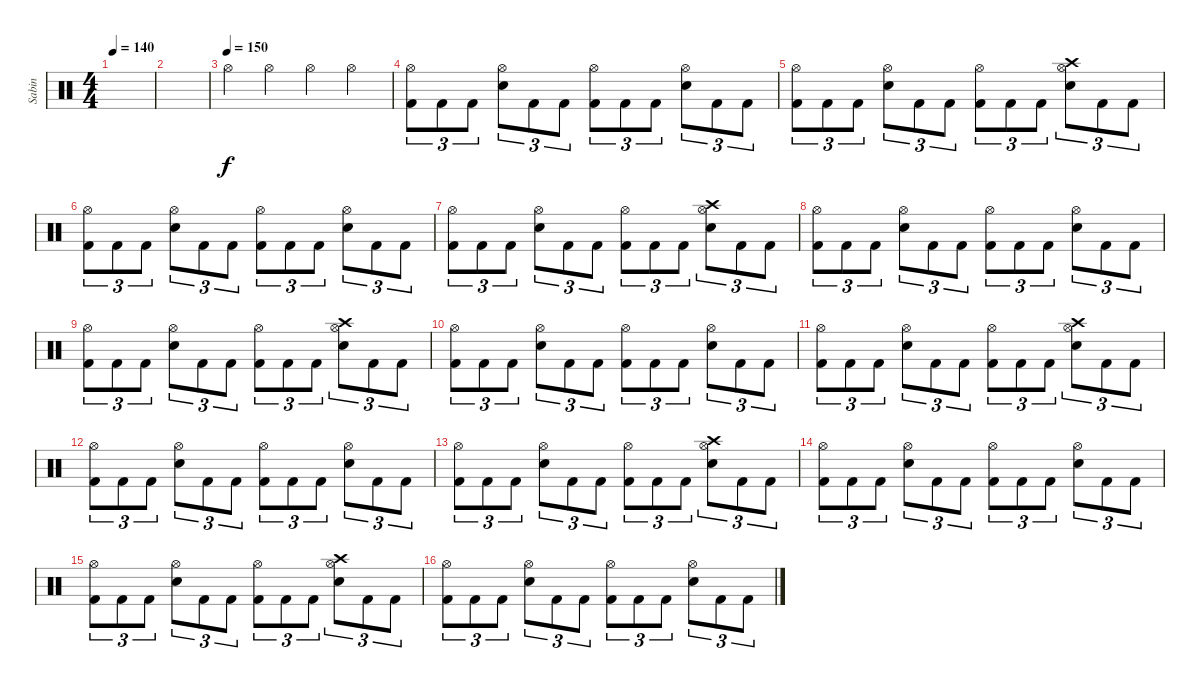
\track ("Sabin" "Sabin") {instrument percussion}
\staff {score}
\articulation defaults
\ts (4 4)
\tempo 140
\clef neutral
\ks c
|
|
\tempo (150)
"Hi-Hat (open)".4 "Hi-Hat (open)".4 "Hi-Hat (open)".4 "Hi-Hat (open)".4 |
("Hi-Hat (open)" "Kick (hit) 2").8{tu (3 2)} "Kick (hit) 2".8{tu (3 2)} "Kick (hit) 2".8{tu (3 2)} ("Snare (hit) 2" "Hi-Hat (open)").8{tu (3 2)} "Kick (hit) 2".8{tu (3 2)} "Kick (hit) 2".8{tu (3 2)} ("Hi-Hat (open)" "Kick (hit) 2").8{tu (3 2)} "Kick (hit) 2".8{tu (3 2)} "Kick (hit) 2".8{tu (3 2)} ("Snare (hit) 2" "Hi-Hat (open)").8{tu (3 2)} "Kick (hit) 2".8{tu (3 2)} "Kick (hit) 2".8{tu (3 2)} |
("Hi-Hat (open)" "Kick (hit) 2").8{tu (3 2)} "Kick (hit) 2".8{tu (3 2)} "Kick (hit) 2".8{tu (3 2)} ("Snare (hit) 2" "Hi-Hat (open)").8{tu (3 2)} "Kick (hit) 2".8{tu (3 2)} "Kick (hit) 2".8{tu (3 2)} ("Hi-Hat (open)" "Kick (hit) 2").8{tu (3 2)} "Kick (hit) 2".8{tu (3 2)} "Kick (hit) 2".8{tu (3 2)} ("Crash high (hit)" "Snare (hit) 2" "Hi-Hat (open)").8{tu (3 2)} "Kick (hit) 2".8{tu (3 2)} "Kick (hit) 2".8{tu (3 2)} |
("Hi-Hat (open)" "Kick (hit) 2").8{tu (3 2)} "Kick (hit) 2".8{tu (3 2)} "Kick (hit) 2".8{tu (3 2)} ("Snare (hit) 2" "Hi-Hat (open)").8{tu (3 2)} "Kick (hit) 2".8{tu (3 2)} "Kick (hit) 2".8{tu (3 2)} ("Hi-Hat (open)" "Kick (hit) 2").8{tu (3 2)} "Kick (hit) 2".8{tu (3 2)} "Kick (hit) 2".8{tu (3 2)} ("Snare (hit) 2" "Hi-Hat (open)").8{tu (3 2)} "Kick (hit) 2".8{tu (3 2)} "Kick (hit) 2".8{tu (3 2)} |
("Hi-Hat (open)" "Kick (hit) 2").8{tu (3 2)} "Kick (hit) 2".8{tu (3 2)} "Kick (hit) 2".8{tu (3 2)} ("Snare (hit) 2" "Hi-Hat (open)").8{tu (3 2)} "Kick (hit) 2".8{tu (3 2)} "Kick (hit) 2".8{tu (3 2)} ("Hi-Hat (open)" "Kick (hit) 2").8{tu (3 2)} "Kick (hit) 2".8{tu (3 2)} "Kick (hit) 2".8{tu (3 2)} ("Crash high (hit)" "Snare (hit) 2" "Hi-Hat (open)").8{tu (3 2)} "Kick (hit) 2".8{tu (3 2)} "Kick (hit) 2".8{tu (3 2)} |
("Hi-Hat (open)" "Kick (hit) 2").8{tu (3 2)} "Kick (hit) 2".8{tu (3 2)} "Kick (hit) 2".8{tu (3 2)} ("Snare (hit) 2" "Hi-Hat (open)").8{tu (3 2)} "Kick (hit) 2".8{tu (3 2)} "Kick (hit) 2".8{tu (3 2)} ("Hi-Hat (open)" "Kick (hit) 2").8{tu (3 2)} "Kick (hit) 2".8{tu (3 2)} "Kick (hit) 2".8{tu (3 2)} ("Snare (hit) 2" "Hi-Hat (open)").8{tu (3 2)} "Kick (hit) 2".8{tu (3 2)} "Kick (hit) 2".8{tu (3 2)} |
("Hi-Hat (open)" "Kick (hit) 2").8{tu (3 2)} "Kick (hit) 2".8{tu (3 2)} "Kick (hit) 2".8{tu (3 2)} ("Snare (hit) 2" "Hi-Hat (open)").8{tu (3 2)} "Kick (hit) 2".8{tu (3 2)} "Kick (hit) 2".8{tu (3 2)} ("Hi-Hat (open)" "Kick (hit) 2").8{tu (3 2)} "Kick (hit) 2".8{tu (3 2)} "Kick (hit) 2".8{tu (3 2)} ("Crash high (hit)" "Snare (hit) 2" "Hi-Hat (open)").8{tu (3 2)} "Kick (hit) 2".8{tu (3 2)} "Kick (hit) 2".8{tu (3 2)} |
("Hi-Hat (open)" "Kick (hit) 2").8{tu (3 2)} "Kick (hit) 2".8{tu (3 2)} "Kick (hit) 2".8{tu (3 2)} ("Snare (hit) 2" "Hi-Hat (open)").8{tu (3 2)} "Kick (hit) 2".8{tu (3 2)} "Kick (hit) 2".8{tu (3 2)} ("Hi-Hat (open)" "Kick (hit) 2").8{tu (3 2)} "Kick (hit) 2".8{tu (3 2)} "Kick (hit) 2".8{tu (3 2)} ("Snare (hit) 2" "Hi-Hat (open)").8{tu (3 2)} "Kick (hit) 2".8{tu (3 2)} "Kick (hit) 2".8{tu (3 2)} |
("Hi-Hat (open)" "Kick (hit) 2").8{tu (3 2)} "Kick (hit) 2".8{tu (3 2)} "Kick (hit) 2".8{tu (3 2)} ("Snare (hit) 2" "Hi-Hat (open)").8{tu (3 2)} "Kick (hit) 2".8{tu (3 2)} "Kick (hit) 2".8{tu (3 2)} ("Hi-Hat (open)" "Kick (hit) 2").8{tu (3 2)} "Kick (hit) 2".8{tu (3 2)} "Kick (hit) 2".8{tu (3 2)} ("Crash high (hit)" "Snare (hit) 2" "Hi-Hat (open)").8{tu (3 2)} "Kick (hit) 2".8{tu (3 2)} "Kick (hit) 2".8{tu (3 2)} |
("Hi-Hat (open)" "Kick (hit) 2").8{tu (3 2)} "Kick (hit) 2".8{tu (3 2)} "Kick (hit) 2".8{tu (3 2)} ("Snare (hit) 2" "Hi-Hat (open)").8{tu (3 2)} "Kick (hit) 2".8{tu (3 2)} "Kick (hit) 2".8{tu (3 2)} ("Hi-Hat (open)" "Kick (hit) 2").8{tu (3 2)} "Kick (hit) 2".8{tu (3 2)} "Kick (hit) 2".8{tu (3 2)} ("Snare (hit) 2" "Hi-Hat (open)").8{tu (3 2)} "Kick (hit) 2".8{tu (3 2)} "Kick (hit) 2".8{tu (3 2)} |
("Hi-Hat (open)" "Kick (hit) 2").8{tu (3 2)} "Kick (hit) 2".8{tu (3 2)} "Kick (hit) 2".8{tu (3 2)} ("Snare (hit) 2" "Hi-Hat (open)").8{tu (3 2)} "Kick (hit) 2".8{tu (3 2)} "Kick (hit) 2".8{tu (3 2)} ("Hi-Hat (open)" "Kick (hit) 2").8{tu (3 2)} "Kick (hit) 2".8{tu (3 2)} "Kick (hit) 2".8{tu (3 2)} ("Crash high (hit)" "Snare (hit) 2" "Hi-Hat (open)").8{tu (3 2)} "Kick (hit) 2".8{tu (3 2)} "Kick (hit) 2".8{tu (3 2)} |
("Hi-Hat (open)" "Kick (hit) 2").8{tu (3 2)} "Kick (hit) 2".8{tu (3 2)} "Kick (hit) 2".8{tu (3 2)} ("Snare (hit) 2" "Hi-Hat (open)").8{tu (3 2)} "Kick (hit) 2".8{tu (3 2)} "Kick (hit) 2".8{tu (3 2)} ("Hi-Hat (open)" "Kick (hit) 2").8{tu (3 2)} "Kick (hit) 2".8{tu (3 2)} "Kick (hit) 2".8{tu (3 2)} ("Snare (hit) 2" "Hi-Hat (open)").8{tu (3 2)} "Kick (hit) 2".8{tu (3 2)} "Kick (hit) 2".8{tu (3 2)} |
("Hi-Hat (open)" "Kick (hit) 2").8{tu (3 2)} "Kick (hit) 2".8{tu (3 2)} "Kick (hit) 2".8{tu (3 2)} ("Snare (hit) 2" "Hi-Hat (open)").8{tu (3 2)} "Kick (hit) 2".8{tu (3 2)} "Kick (hit) 2".8{tu (3 2)} ("Hi-Hat (open)" "Kick (hit) 2").8{tu (3 2)} "Kick (hit) 2".8{tu (3 2)} "Kick (hit) 2".8{tu (3 2)} ("Crash high (hit)" "Snare (hit) 2" "Hi-Hat (open)").8{tu (3 2)} "Kick (hit) 2".8{tu (3 2)} "Kick (hit) 2".8{tu (3 2)} |
("Hi-Hat (open)" "Kick (hit) 2").8{tu (3 2)} "Kick (hit) 2".8{tu (3 2)} "Kick (hit) 2".8{tu (3 2)} ("Snare (hit) 2" "Hi-Hat (open)").8{tu (3 2)} "Kick (hit) 2".8{tu (3 2)} "Kick (hit) 2".8{tu (3 2)} ("Hi-Hat (open)" "Kick (hit) 2").8{tu (3 2)} "Kick (hit) 2".8{tu (3 2)} "Kick (hit) 2".8{tu (3 2)} ("Snare (hit) 2" "Hi-Hat (open)").8{tu (3 2)} "Kick (hit) 2".8{tu (3 2)} "Kick (hit) 2".8{tu (3 2)}
